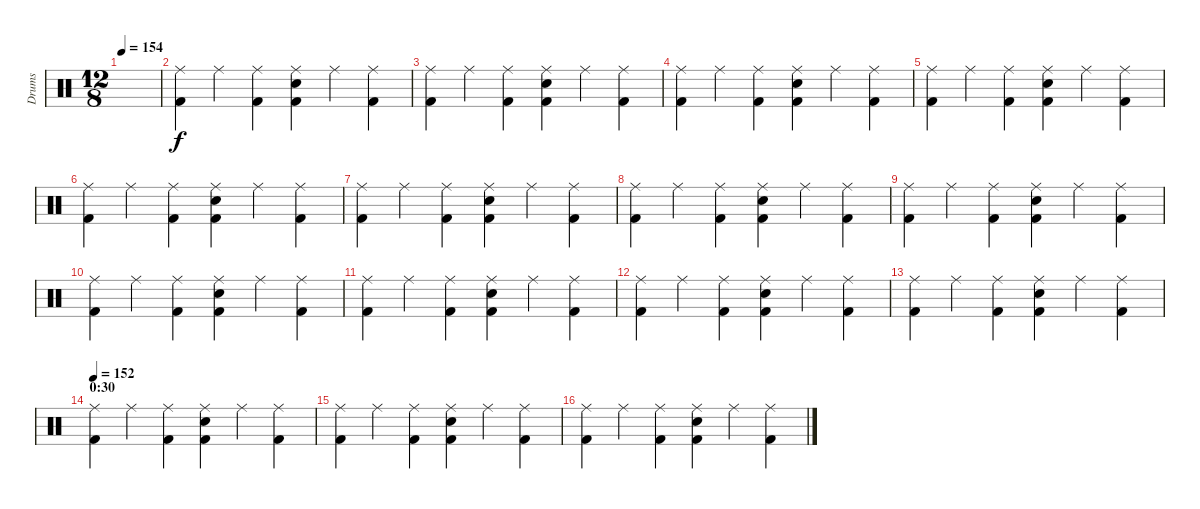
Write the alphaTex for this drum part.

\track ("Drums" "Drums") {instrument percussion}
\staff {score}
\articulation defaults
\ts (12 8)
\tempo 154
\clef neutral
\ks c
|
("Ride (middle)" "Kick (hit) 2").4 "Ride (middle)".4 ("Ride (middle)" "Kick (hit) 2").4 ("Ride (middle)" "Snare (hit) 2" "Kick (hit) 2").4 "Ride (middle)".4 ("Ride (middle)" "Kick (hit) 2").4 |
("Ride (middle)" "Kick (hit) 2").4 "Ride (middle)".4 ("Ride (middle)" "Kick (hit) 2").4 ("Ride (middle)" "Snare (hit) 2" "Kick (hit) 2").4 "Ride (middle)".4 ("Ride (middle)" "Kick (hit) 2").4 |
("Ride (middle)" "Kick (hit) 2").4 "Ride (middle)".4 ("Ride (middle)" "Kick (hit) 2").4 ("Ride (middle)" "Snare (hit) 2" "Kick (hit) 2").4 "Ride (middle)".4 ("Ride (middle)" "Kick (hit) 2").4 |
("Ride (middle)" "Kick (hit) 2").4 "Ride (middle)".4 ("Ride (middle)" "Kick (hit) 2").4 ("Ride (middle)" "Snare (hit) 2" "Kick (hit) 2").4 "Ride (middle)".4 ("Ride (middle)" "Kick (hit) 2").4 |
("Ride (middle)" "Kick (hit) 2").4 "Ride (middle)".4 ("Ride (middle)" "Kick (hit) 2").4 ("Ride (middle)" "Snare (hit) 2" "Kick (hit) 2").4 "Ride (middle)".4 ("Ride (middle)" "Kick (hit) 2").4 |
("Ride (middle)" "Kick (hit) 2").4 "Ride (middle)".4 ("Ride (middle)" "Kick (hit) 2").4 ("Ride (middle)" "Snare (hit) 2" "Kick (hit) 2").4 "Ride (middle)".4 ("Ride (middle)" "Kick (hit) 2").4 |
("Ride (middle)" "Kick (hit) 2").4 "Ride (middle)".4 ("Ride (middle)" "Kick (hit) 2").4 ("Ride (middle)" "Snare (hit) 2" "Kick (hit) 2").4 "Ride (middle)".4 ("Ride (middle)" "Kick (hit) 2").4 |
("Ride (middle)" "Kick (hit) 2").4 "Ride (middle)".4 ("Ride (middle)" "Kick (hit) 2").4 ("Ride (middle)" "Snare (hit) 2" "Kick (hit) 2").4 "Ride (middle)".4 ("Ride (middle)" "Kick (hit) 2").4 |
("Ride (middle)" "Kick (hit) 2").4 "Ride (middle)".4 ("Ride (middle)" "Kick (hit) 2").4 ("Ride (middle)" "Snare (hit) 2" "Kick (hit) 2").4 "Ride (middle)".4 ("Ride (middle)" "Kick (hit) 2").4 |
("Ride (middle)" "Kick (hit) 2").4 "Ride (middle)".4 ("Ride (middle)" "Kick (hit) 2").4 ("Ride (middle)" "Snare (hit) 2" "Kick (hit) 2").4 "Ride (middle)".4 ("Ride (middle)" "Kick (hit) 2").4 |
("Ride (middle)" "Kick (hit) 2").4 "Ride (middle)".4 ("Ride (middle)" "Kick (hit) 2").4 ("Ride (middle)" "Snare (hit) 2" "Kick (hit) 2").4 "Ride (middle)".4 ("Ride (middle)" "Kick (hit) 2").4 |
("Ride (middle)" "Kick (hit) 2").4 "Ride (middle)".4 ("Ride (middle)" "Kick (hit) 2").4 ("Ride (middle)" "Snare (hit) 2" "Kick (hit) 2").4 "Ride (middle)".4 ("Ride (middle)" "Kick (hit) 2").4 |
\section ("" "0:30")
\tempo 152
("Ride (middle)" "Kick (hit) 2").4 "Ride (middle)".4 ("Ride (middle)" "Kick (hit) 2").4 ("Ride (middle)" "Electric Snare (hit)" "Kick (hit) 2").4 "Ride (middle)".4 ("Ride (middle)" "Kick (hit) 2").4 |
("Ride (middle)" "Kick (hit) 2").4 "Ride (middle)".4 ("Ride (middle)" "Kick (hit) 2").4 ("Ride (middle)" "Snare (hit) 2" "Kick (hit) 2").4 "Ride (middle)".4 ("Ride (middle)" "Kick (hit) 2").4 |
("Ride (middle)" "Kick (hit) 2").4 "Ride (middle)".4 ("Ride (middle)" "Kick (hit) 2").4 ("Ride (middle)" "Snare (hit) 2" "Kick (hit) 2").4 "Ride (middle)".4 ("Ride (middle)" "Kick (hit) 2").4
